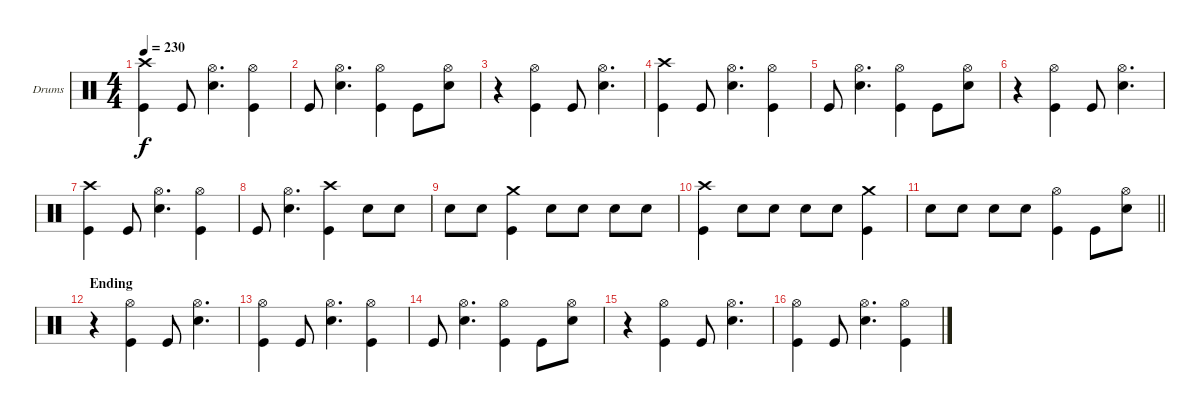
\bracketExtendMode groupsimilarinstruments
\firstSystemTrackNameOrientation horizontal
\otherSystemsTrackNameOrientation horizontal
\track ("Drumkit" "Drums") {instrument percussion}
\staff {score}
\articulation defaults
\ts (4 4)
\tempo 230
\clef neutral
\ks c
("Crash high (hit)" "Kick (hit)").4{dy f} "Kick (hit)".8 ("Hi-Hat (open)" "Snare (hit) 2").4{d} ("Hi-Hat (open)" "Kick (hit)").4 |
"Kick (hit)".8 ("Hi-Hat (open)" "Snare (hit) 2").4{d} ("Hi-Hat (open)" "Kick (hit)").4 "Kick (hit)".8 ("Hi-Hat (open)" "Snare (hit) 2").8 |
r.4 ("Hi-Hat (open)" "Kick (hit)").4 "Kick (hit)".8 ("Hi-Hat (open)" "Snare (hit) 2").4{d} |
("Crash high (hit)" "Kick (hit)").4 "Kick (hit)".8 ("Hi-Hat (open)" "Snare (hit) 2").4{d} ("Hi-Hat (open)" "Kick (hit)").4 |
"Kick (hit)".8 ("Hi-Hat (open)" "Snare (hit) 2").4{d} ("Hi-Hat (open)" "Kick (hit)").4 "Kick (hit)".8 ("Hi-Hat (open)" "Snare (hit) 2").8 |
r.4 ("Hi-Hat (open)" "Kick (hit)").4 "Kick (hit)".8 ("Hi-Hat (open)" "Snare (hit) 2").4{d} |
("Crash high (hit)" "Kick (hit)").4 "Kick (hit)".8 ("Hi-Hat (open)" "Snare (hit) 2").4{d} ("Hi-Hat (open)" "Kick (hit)").4 |
"Kick (hit)".8 ("Hi-Hat (open)" "Snare (hit) 2").4{d} ("Crash high (hit)" "Kick (hit)").4 "Snare (hit) 2".8 "Snare (hit) 2".8 |
"Snare (hit) 2".8 "Snare (hit) 2".8 ("Crash medium (hit)" "Kick (hit)").4 "Snare (hit) 2".8 "Snare (hit) 2".8 "Snare (hit) 2".8 "Snare (hit) 2".8 |
("Crash high (hit)" "Kick (hit)").4 "Snare (hit) 2".8 "Snare (hit) 2".8 "Snare (hit) 2".8 "Snare (hit) 2".8 ("Crash medium (hit)" "Kick (hit)").4 |
\barLineRight lightlight "Snare (hit) 2".8 "Snare (hit) 2".8 "Snare (hit) 2".8 "Snare (hit) 2".8
("Hi-Hat (open)" "Kick (hit)").4 "Kick (hit)".8 ("Hi-Hat (open)" "Snare (hit) 2").8 |
\section ("" "Ending")
r.4 ("Hi-Hat (open)" "Kick (hit)").4 "Kick (hit)".8 ("Hi-Hat (open)" "Snare (hit) 2").4{d} |
("Hi-Hat (open)" "Kick (hit)").4 "Kick (hit)".8 ("Hi-Hat (open)" "Snare (hit) 2").4{d} ("Hi-Hat (open)" "Kick (hit)").4 |
"Kick (hit)".8 ("Hi-Hat (open)" "Snare (hit) 2").4{d} ("Hi-Hat (open)" "Kick (hit)").4 "Kick (hit)".8 ("Hi-Hat (open)" "Snare (hit) 2").8 |
r.4 ("Hi-Hat (open)" "Kick (hit)").4 "Kick (hit)".8 ("Hi-Hat (open)" "Snare (hit) 2").4{d} |
("Hi-Hat (open)" "Kick (hit)").4 "Kick (hit)".8 ("Hi-Hat (open)" "Snare (hit) 2").4{d} ("Hi-Hat (open)" "Kick (hit)").4
